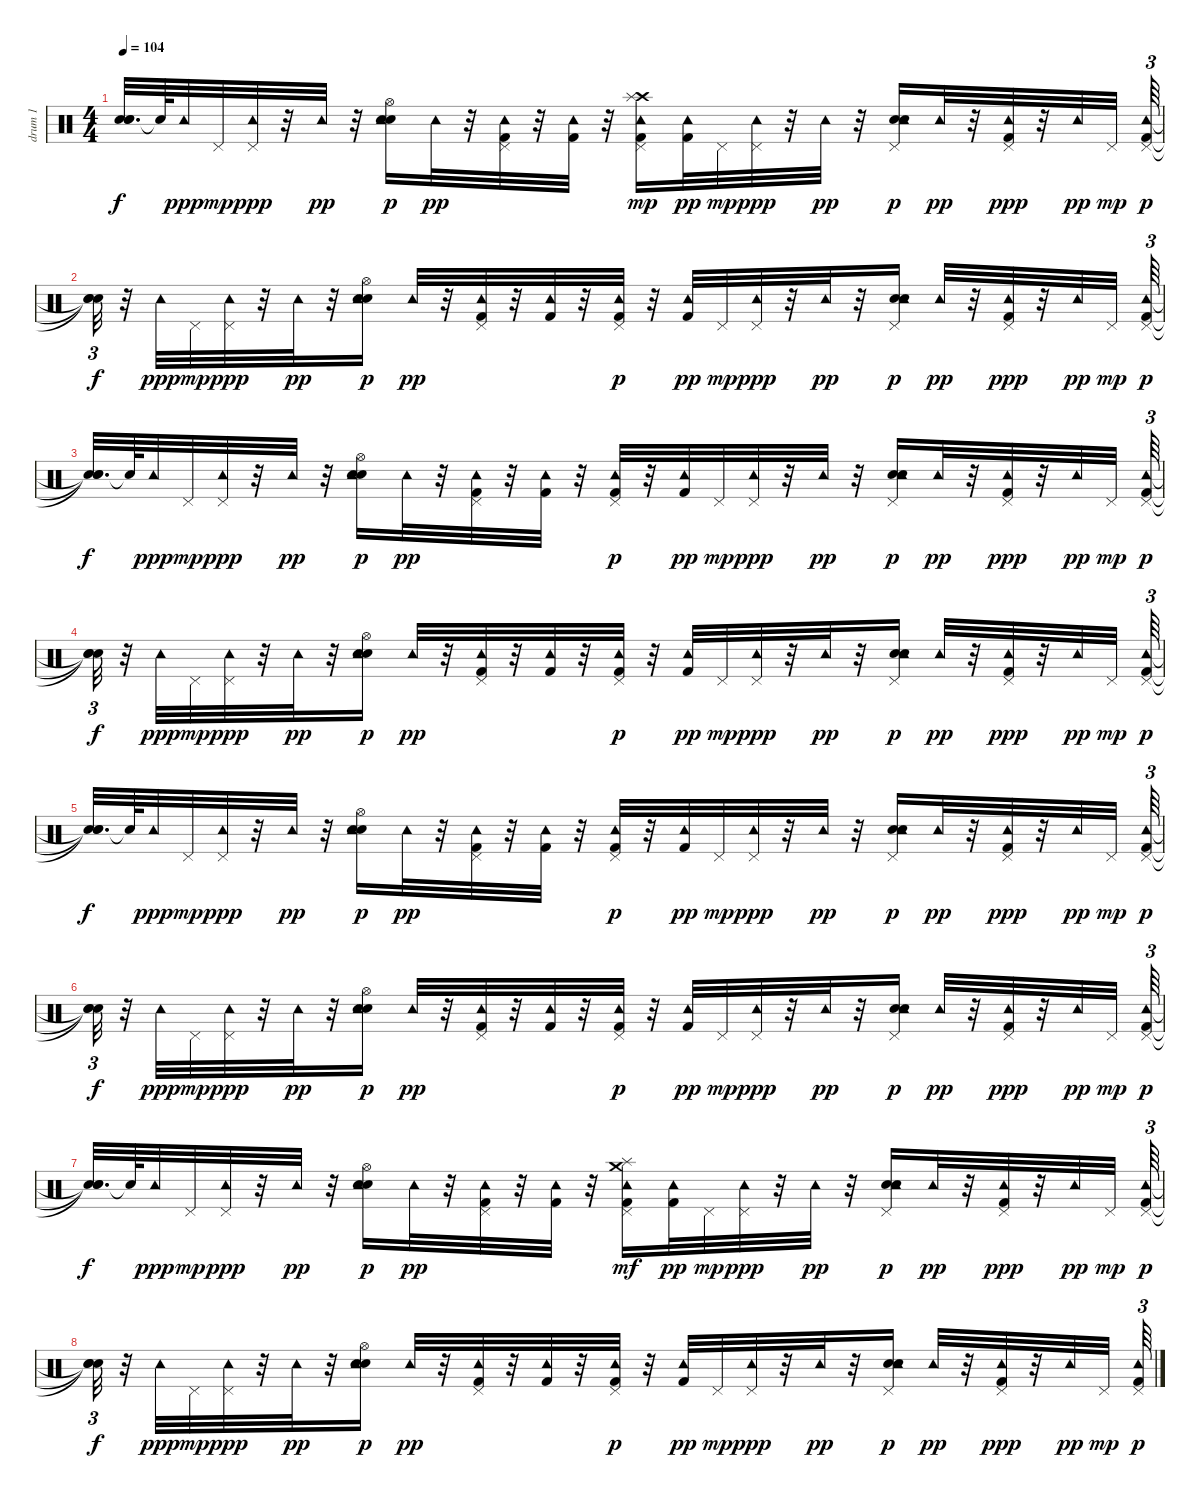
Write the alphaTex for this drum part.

\track ("drum 1" "drum 1") {instrument percussion}
\staff {score}
\articulation defaults
\ts (4 4)
\tempo 104
\clef neutral
\ks c
("Snare (hit)"{t} "Snare (hit)"{t} "Snare (hit)"{t}).32{d dy f} "Snare (hit)"{t}.64 "Tambourine (hit)".32{dy ppp} "Pedal Hi-Hat (hit)".32{dy mp} ("Pedal Hi-Hat (hit)" "Tambourine (hit)").32{dy ppp} r.32 "Tambourine (hit)".32{dy pp} r.32 ("Hand Clap (hit)" "Electric Snare (hit)" "Hi-Hat (open)" "Tambourine (hit)").16{dy p} "Tambourine (hit)".32{dy pp} r.32 ("Kick (hit) 2" "Pedal Hi-Hat (hit)" "Tambourine (hit)").32 r.32 ("Kick (hit) 2" "Tambourine (hit)").32 r.32 ("Kick (hit) 2" "Pedal Hi-Hat (hit)" "Crash high (hit)" "Tambourine (hit)" "Splash (hit)").16{dy mp} ("Kick (hit) 2" "Tambourine (hit)").32{dy pp} "Pedal Hi-Hat (hit)".32{dy mp} ("Pedal Hi-Hat (hit)" "Tambourine (hit)").32{dy ppp} r.32 "Tambourine (hit)".32{dy pp} r.32 ("Hand Clap (hit)" "Electric Snare (hit)" "Pedal Hi-Hat (hit)" "Tambourine (hit)").16{dy p} "Tambourine (hit)".32{dy pp} r.32 ("Kick (hit) 2" "Pedal Hi-Hat (hit)" "Tambourine (hit)").32{dy ppp} r.32 "Tambourine (hit)".32{dy pp} "Pedal Hi-Hat (hit)".32{dy mp} ("Kick (hit) 2" "Pedal Hi-Hat (hit)" "Tambourine (hit)").64{tu (3 2) dy p} |
("Snare (hit)"{t} "Snare (hit)"{t} "Snare (hit)"{t}).32{tu (3 2) dy f} r.32 "Tambourine (hit)".32{dy ppp} "Pedal Hi-Hat (hit)".32{dy mp} ("Pedal Hi-Hat (hit)" "Tambourine (hit)").32{dy ppp} r.32 "Tambourine (hit)".32{dy pp} r.32 ("Hand Clap (hit)" "Electric Snare (hit)" "Hi-Hat (open)" "Tambourine (hit)").16{dy p} "Tambourine (hit)".32{dy pp} r.32 ("Kick (hit) 2" "Pedal Hi-Hat (hit)" "Tambourine (hit)").32 r.32 ("Kick (hit) 2" "Tambourine (hit)").32 r.32 ("Kick (hit) 2" "Pedal Hi-Hat (hit)" "Tambourine (hit)").32{dy p} r.32 ("Kick (hit) 2" "Tambourine (hit)").32{dy pp} "Pedal Hi-Hat (hit)".32{dy mp} ("Pedal Hi-Hat (hit)" "Tambourine (hit)").32{dy ppp} r.32 "Tambourine (hit)".32{dy pp} r.32 ("Hand Clap (hit)" "Electric Snare (hit)" "Pedal Hi-Hat (hit)" "Tambourine (hit)").16{dy p} "Tambourine (hit)".32{dy pp} r.32 ("Kick (hit) 2" "Pedal Hi-Hat (hit)" "Tambourine (hit)").32{dy ppp} r.32 "Tambourine (hit)".32{dy pp} "Pedal Hi-Hat (hit)".32{dy mp beam splitsecondary} ("Kick (hit) 2" "Pedal Hi-Hat (hit)" "Tambourine (hit)").64{tu (3 2) dy p} |
("Snare (hit)"{t} "Snare (hit)"{t} "Snare (hit)"{t}).32{d dy f} "Snare (hit)"{t}.64 "Tambourine (hit)".32{dy ppp} "Pedal Hi-Hat (hit)".32{dy mp} ("Pedal Hi-Hat (hit)" "Tambourine (hit)").32{dy ppp} r.32 "Tambourine (hit)".32{dy pp} r.32 ("Hand Clap (hit)" "Electric Snare (hit)" "Hi-Hat (open)" "Tambourine (hit)").16{dy p} "Tambourine (hit)".32{dy pp} r.32 ("Kick (hit) 2" "Pedal Hi-Hat (hit)" "Tambourine (hit)").32 r.32 ("Kick (hit) 2" "Tambourine (hit)").32 r.32 ("Kick (hit) 2" "Pedal Hi-Hat (hit)" "Tambourine (hit)").32{dy p} r.32 ("Kick (hit) 2" "Tambourine (hit)").32{dy pp} "Pedal Hi-Hat (hit)".32{dy mp} ("Pedal Hi-Hat (hit)" "Tambourine (hit)").32{dy ppp} r.32 "Tambourine (hit)".32{dy pp} r.32 ("Hand Clap (hit)" "Electric Snare (hit)" "Pedal Hi-Hat (hit)" "Tambourine (hit)").16{dy p} "Tambourine (hit)".32{dy pp} r.32 ("Kick (hit) 2" "Pedal Hi-Hat (hit)" "Tambourine (hit)").32{dy ppp} r.32 "Tambourine (hit)".32{dy pp} "Pedal Hi-Hat (hit)".32{dy mp} ("Kick (hit) 2" "Pedal Hi-Hat (hit)" "Tambourine (hit)").64{tu (3 2) dy p} |
("Snare (hit)"{t} "Snare (hit)"{t} "Snare (hit)"{t}).32{tu (3 2) dy f} r.32 "Tambourine (hit)".32{dy ppp} "Pedal Hi-Hat (hit)".32{dy mp} ("Pedal Hi-Hat (hit)" "Tambourine (hit)").32{dy ppp} r.32 "Tambourine (hit)".32{dy pp} r.32 ("Hand Clap (hit)" "Electric Snare (hit)" "Hi-Hat (open)" "Tambourine (hit)").16{dy p} "Tambourine (hit)".32{dy pp} r.32 ("Kick (hit) 2" "Pedal Hi-Hat (hit)" "Tambourine (hit)").32 r.32 ("Kick (hit) 2" "Tambourine (hit)").32 r.32 ("Kick (hit) 2" "Pedal Hi-Hat (hit)" "Tambourine (hit)").32{dy p} r.32 ("Kick (hit) 2" "Tambourine (hit)").32{dy pp} "Pedal Hi-Hat (hit)".32{dy mp} ("Pedal Hi-Hat (hit)" "Tambourine (hit)").32{dy ppp} r.32 "Tambourine (hit)".32{dy pp} r.32 ("Hand Clap (hit)" "Electric Snare (hit)" "Pedal Hi-Hat (hit)" "Tambourine (hit)").16{dy p} "Tambourine (hit)".32{dy pp} r.32 ("Kick (hit) 2" "Pedal Hi-Hat (hit)" "Tambourine (hit)").32{dy ppp} r.32 "Tambourine (hit)".32{dy pp} "Pedal Hi-Hat (hit)".32{dy mp beam splitsecondary} ("Kick (hit) 2" "Pedal Hi-Hat (hit)" "Tambourine (hit)").64{tu (3 2) dy p} |
("Snare (hit)"{t} "Snare (hit)"{t} "Snare (hit)"{t}).32{d dy f} "Snare (hit)"{t}.64 "Tambourine (hit)".32{dy ppp} "Pedal Hi-Hat (hit)".32{dy mp} ("Pedal Hi-Hat (hit)" "Tambourine (hit)").32{dy ppp} r.32 "Tambourine (hit)".32{dy pp} r.32 ("Hand Clap (hit)" "Electric Snare (hit)" "Hi-Hat (open)" "Tambourine (hit)").16{dy p} "Tambourine (hit)".32{dy pp} r.32 ("Kick (hit) 2" "Pedal Hi-Hat (hit)" "Tambourine (hit)").32 r.32 ("Kick (hit) 2" "Tambourine (hit)").32 r.32 ("Kick (hit) 2" "Pedal Hi-Hat (hit)" "Tambourine (hit)").32{dy p} r.32 ("Kick (hit) 2" "Tambourine (hit)").32{dy pp} "Pedal Hi-Hat (hit)".32{dy mp} ("Pedal Hi-Hat (hit)" "Tambourine (hit)").32{dy ppp} r.32 "Tambourine (hit)".32{dy pp} r.32 ("Hand Clap (hit)" "Electric Snare (hit)" "Pedal Hi-Hat (hit)" "Tambourine (hit)").16{dy p} "Tambourine (hit)".32{dy pp} r.32 ("Kick (hit) 2" "Pedal Hi-Hat (hit)" "Tambourine (hit)").32{dy ppp} r.32 "Tambourine (hit)".32{dy pp} "Pedal Hi-Hat (hit)".32{dy mp} ("Kick (hit) 2" "Pedal Hi-Hat (hit)" "Tambourine (hit)").64{tu (3 2) dy p} |
("Snare (hit)"{t} "Snare (hit)"{t} "Snare (hit)"{t}).32{tu (3 2) dy f} r.32 "Tambourine (hit)".32{dy ppp} "Pedal Hi-Hat (hit)".32{dy mp} ("Pedal Hi-Hat (hit)" "Tambourine (hit)").32{dy ppp} r.32 "Tambourine (hit)".32{dy pp} r.32 ("Hand Clap (hit)" "Electric Snare (hit)" "Hi-Hat (open)" "Tambourine (hit)").16{dy p} "Tambourine (hit)".32{dy pp} r.32 ("Kick (hit) 2" "Pedal Hi-Hat (hit)" "Tambourine (hit)").32 r.32 ("Kick (hit) 2" "Tambourine (hit)").32 r.32 ("Kick (hit) 2" "Pedal Hi-Hat (hit)" "Tambourine (hit)").32{dy p} r.32 ("Kick (hit) 2" "Tambourine (hit)").32{dy pp} "Pedal Hi-Hat (hit)".32{dy mp} ("Pedal Hi-Hat (hit)" "Tambourine (hit)").32{dy ppp} r.32 "Tambourine (hit)".32{dy pp} r.32 ("Hand Clap (hit)" "Electric Snare (hit)" "Pedal Hi-Hat (hit)" "Tambourine (hit)").16{dy p} "Tambourine (hit)".32{dy pp} r.32 ("Kick (hit) 2" "Pedal Hi-Hat (hit)" "Tambourine (hit)").32{dy ppp} r.32 "Tambourine (hit)".32{dy pp} "Pedal Hi-Hat (hit)".32{dy mp beam splitsecondary} ("Kick (hit) 2" "Pedal Hi-Hat (hit)" "Tambourine (hit)").64{tu (3 2) dy p} |
("Snare (hit)"{t} "Snare (hit)"{t} "Snare (hit)"{t}).32{d dy f} "Snare (hit)"{t}.64 "Tambourine (hit)".32{dy ppp} "Pedal Hi-Hat (hit)".32{dy mp} ("Pedal Hi-Hat (hit)" "Tambourine (hit)").32{dy ppp} r.32 "Tambourine (hit)".32{dy pp} r.32 ("Hand Clap (hit)" "Electric Snare (hit)" "Hi-Hat (open)" "Tambourine (hit)").16{dy p} "Tambourine (hit)".32{dy pp} r.32 ("Kick (hit) 2" "Pedal Hi-Hat (hit)" "Tambourine (hit)").32 r.32 ("Kick (hit) 2" "Tambourine (hit)").32 r.32 ("Kick (hit) 2" "Pedal Hi-Hat (hit)" "Tambourine (hit)" "Splash (hit)" "Crash medium (hit)").16{dy mf} ("Kick (hit) 2" "Tambourine (hit)").32{dy pp} "Pedal Hi-Hat (hit)".32{dy mp} ("Pedal Hi-Hat (hit)" "Tambourine (hit)").32{dy ppp} r.32 "Tambourine (hit)".32{dy pp} r.32 ("Hand Clap (hit)" "Electric Snare (hit)" "Pedal Hi-Hat (hit)" "Tambourine (hit)").16{dy p} "Tambourine (hit)".32{dy pp} r.32 ("Kick (hit) 2" "Pedal Hi-Hat (hit)" "Tambourine (hit)").32{dy ppp} r.32 "Tambourine (hit)".32{dy pp} "Pedal Hi-Hat (hit)".32{dy mp} ("Kick (hit) 2" "Pedal Hi-Hat (hit)" "Tambourine (hit)").64{tu (3 2) dy p} |
("Snare (hit)"{t} "Snare (hit)"{t} "Snare (hit)"{t}).32{tu (3 2) dy f} r.32 "Tambourine (hit)".32{dy ppp} "Pedal Hi-Hat (hit)".32{dy mp} ("Pedal Hi-Hat (hit)" "Tambourine (hit)").32{dy ppp} r.32 "Tambourine (hit)".32{dy pp} r.32 ("Hand Clap (hit)" "Electric Snare (hit)" "Hi-Hat (open)" "Tambourine (hit)").16{dy p} "Tambourine (hit)".32{dy pp} r.32 ("Kick (hit) 2" "Pedal Hi-Hat (hit)" "Tambourine (hit)").32 r.32 ("Kick (hit) 2" "Tambourine (hit)").32 r.32 ("Kick (hit) 2" "Pedal Hi-Hat (hit)" "Tambourine (hit)").32{dy p} r.32 ("Kick (hit) 2" "Tambourine (hit)").32{dy pp} "Pedal Hi-Hat (hit)".32{dy mp} ("Pedal Hi-Hat (hit)" "Tambourine (hit)").32{dy ppp} r.32 "Tambourine (hit)".32{dy pp} r.32 ("Hand Clap (hit)" "Electric Snare (hit)" "Pedal Hi-Hat (hit)" "Tambourine (hit)").16{dy p} "Tambourine (hit)".32{dy pp} r.32 ("Kick (hit) 2" "Pedal Hi-Hat (hit)" "Tambourine (hit)").32{dy ppp} r.32 "Tambourine (hit)".32{dy pp} "Pedal Hi-Hat (hit)".32{dy mp beam splitsecondary} ("Kick (hit) 2" "Pedal Hi-Hat (hit)" "Tambourine (hit)").64{tu (3 2) dy p}
